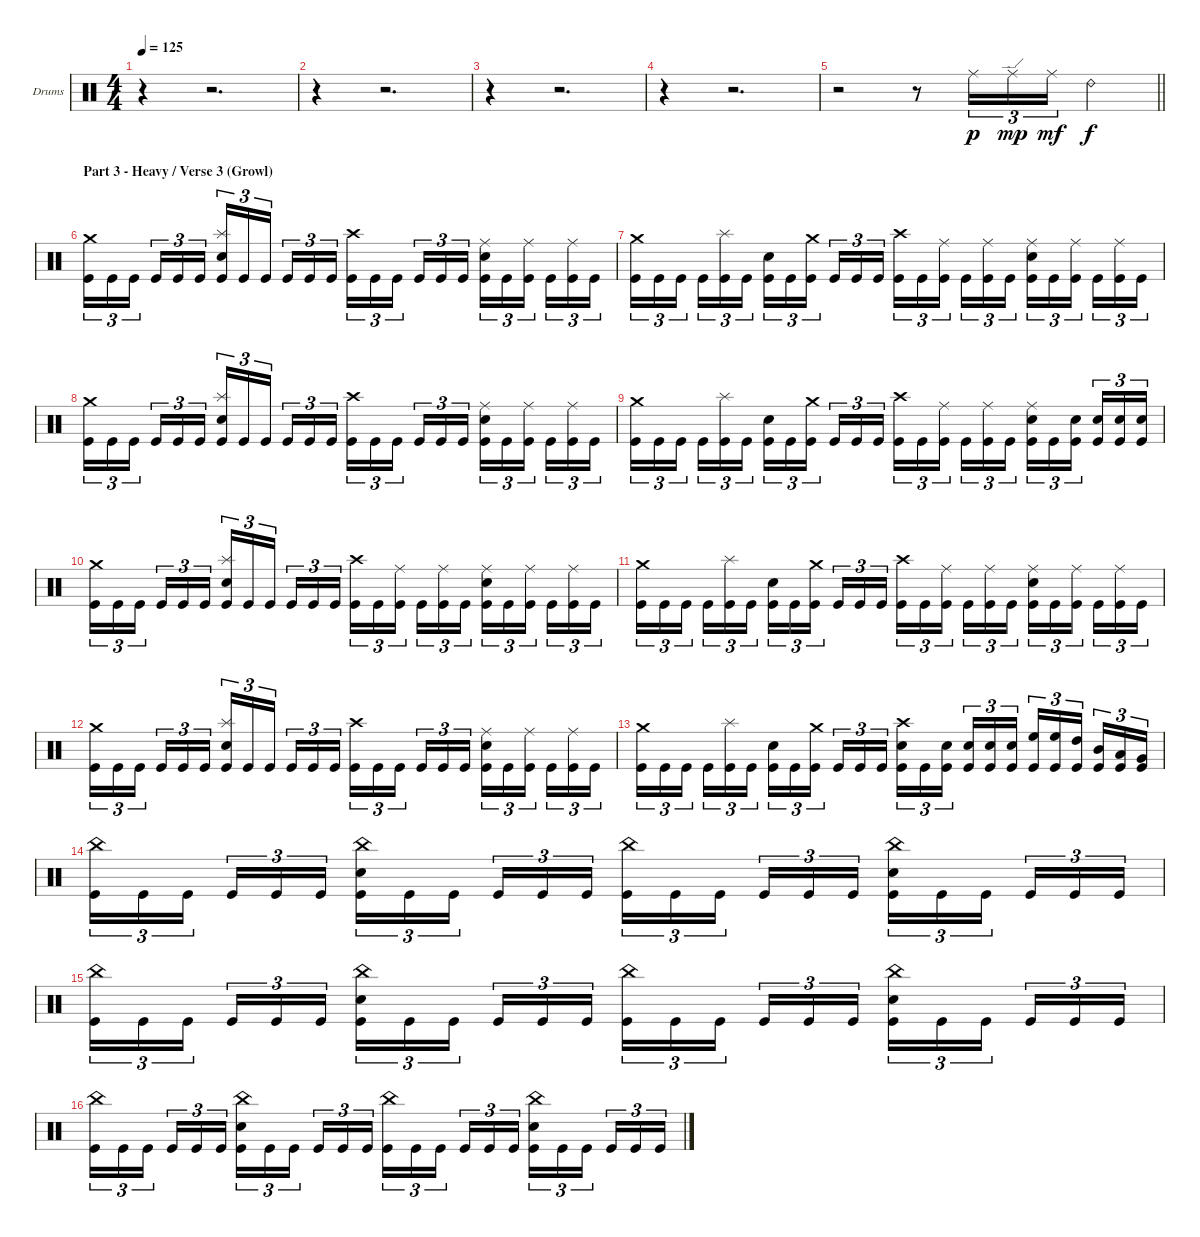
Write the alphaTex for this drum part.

\bracketExtendMode nobrackets
\firstSystemTrackNameOrientation horizontal
\otherSystemsTrackNameOrientation horizontal
\track ("Drumkit" "Drums") {instrument percussion}
\staff {score}
\articulation defaults
\ts (4 4)
\tempo 125
\clef neutral
\ks c
r.4{dy f} r.2{d} |
r.4 r.2{d} |
r.4 r.2{d} |
r.4 r.2{d} |
\barLineRight lightlight
r.2 r.8 "Ride (middle)".16{tu (3 2) dy p} "Ride (edge)".16{tu (3 2) dy mp} "Ride (middle)".16{tu (3 2) dy mf} "Ride (bell) 2".4{dy f} |
\section ("" "Part 3 - Heavy / Verse 3 (Growl)")
("Crash medium (hit)" "Kick (hit)").16{tu (3 2)} "Kick (hit)".16{tu (3 2)} "Kick (hit)".16{tu (3 2)} "Kick (hit)".16{tu (3 2)} "Kick (hit)".16{tu (3 2)} "Kick (hit)".16{tu (3 2)} ("Splash (hit)" "Snare (hit) 2" "Kick (hit)").16{tu (3 2)} "Kick (hit)".16{tu (3 2)} "Kick (hit)".16{tu (3 2)} "Kick (hit)".16{tu (3 2)} "Kick (hit)".16{tu (3 2)} "Kick (hit)".16{tu (3 2)} ("Crash high (hit)" "Kick (hit)").16{tu (3 2)} "Kick (hit)".16{tu (3 2)} "Kick (hit)".16{tu (3 2)} "Kick (hit)".16{tu (3 2)} "Kick (hit)".16{tu (3 2)} "Kick (hit)".16{tu (3 2)} ("Ride (middle)" "Snare (hit) 2" "Kick (hit)").16{tu (3 2)} "Kick (hit)".16{tu (3 2)} ("Ride (middle)" "Kick (hit)").16{tu (3 2)} "Kick (hit)".16{tu (3 2)} ("Ride (middle)" "Kick (hit)").16{tu (3 2)} "Kick (hit)".16{tu (3 2)} |
("Crash medium (hit)" "Kick (hit)").16{tu (3 2)} "Kick (hit)".16{tu (3 2)} "Kick (hit)".16{tu (3 2)} "Kick (hit)".16{tu (3 2)} ("Splash (hit)" "Kick (hit)").16{tu (3 2)} "Kick (hit)".16{tu (3 2)} ("Snare (hit) 2" "Kick (hit)").16{tu (3 2)} "Kick (hit)".16{tu (3 2)} ("Crash medium (hit)" "Kick (hit)").16{tu (3 2)} "Kick (hit)".16{tu (3 2)} "Kick (hit)".16{tu (3 2)} "Kick (hit)".16{tu (3 2)} ("Crash high (hit)" "Kick (hit)").16{tu (3 2)} "Kick (hit)".16{tu (3 2)} ("Ride (middle)" "Kick (hit)").16{tu (3 2)} "Kick (hit)".16{tu (3 2)} ("Ride (middle)" "Kick (hit)").16{tu (3 2)} "Kick (hit)".16{tu (3 2)} ("Ride (middle)" "Snare (hit) 2" "Kick (hit)").16{tu (3 2)} "Kick (hit)".16{tu (3 2)} ("Ride (middle)" "Kick (hit)").16{tu (3 2)} "Kick (hit)".16{tu (3 2)} ("Ride (middle)" "Kick (hit)").16{tu (3 2)} "Kick (hit)".16{tu (3 2)} |
("Crash medium (hit)" "Kick (hit)").16{tu (3 2)} "Kick (hit)".16{tu (3 2)} "Kick (hit)".16{tu (3 2)} "Kick (hit)".16{tu (3 2)} "Kick (hit)".16{tu (3 2)} "Kick (hit)".16{tu (3 2)} ("Splash (hit)" "Snare (hit) 2" "Kick (hit)").16{tu (3 2)} "Kick (hit)".16{tu (3 2)} "Kick (hit)".16{tu (3 2)} "Kick (hit)".16{tu (3 2)} "Kick (hit)".16{tu (3 2)} "Kick (hit)".16{tu (3 2)} ("Crash high (hit)" "Kick (hit)").16{tu (3 2)} "Kick (hit)".16{tu (3 2)} "Kick (hit)".16{tu (3 2)} "Kick (hit)".16{tu (3 2)} "Kick (hit)".16{tu (3 2)} "Kick (hit)".16{tu (3 2)} ("Ride (middle)" "Snare (hit) 2" "Kick (hit)").16{tu (3 2)} "Kick (hit)".16{tu (3 2)} ("Ride (middle)" "Kick (hit)").16{tu (3 2)} "Kick (hit)".16{tu (3 2)} ("Ride (middle)" "Kick (hit)").16{tu (3 2)} "Kick (hit)".16{tu (3 2)} |
("Crash medium (hit)" "Kick (hit)").16{tu (3 2)} "Kick (hit)".16{tu (3 2)} "Kick (hit)".16{tu (3 2)} "Kick (hit)".16{tu (3 2)} ("Splash (hit)" "Kick (hit)").16{tu (3 2)} "Kick (hit)".16{tu (3 2)} ("Snare (hit) 2" "Kick (hit)").16{tu (3 2)} "Kick (hit)".16{tu (3 2)} ("Crash medium (hit)" "Kick (hit)").16{tu (3 2)} "Kick (hit)".16{tu (3 2)} "Kick (hit)".16{tu (3 2)} "Kick (hit)".16{tu (3 2)} ("Crash high (hit)" "Kick (hit)").16{tu (3 2)} "Kick (hit)".16{tu (3 2)} ("Ride (middle)" "Kick (hit)").16{tu (3 2)} "Kick (hit)".16{tu (3 2)} ("Ride (middle)" "Kick (hit)").16{tu (3 2)} "Kick (hit)".16{tu (3 2)} ("Ride (middle)" "Snare (hit) 2" "Kick (hit)").16{tu (3 2)} "Kick (hit)".16{tu (3 2)} ("Snare (hit) 2" "Kick (hit)").16{tu (3 2)} ("Snare (hit) 2" "Kick (hit)").16{tu (3 2)} ("Snare (hit) 2" "Kick (hit)").16{tu (3 2)} ("Snare (hit) 2" "Kick (hit)").16{tu (3 2)} |
("Crash medium (hit)" "Kick (hit)").16{tu (3 2)} "Kick (hit)".16{tu (3 2)} "Kick (hit)".16{tu (3 2)} "Kick (hit)".16{tu (3 2)} "Kick (hit)".16{tu (3 2)} "Kick (hit)".16{tu (3 2)} ("Splash (hit)" "Snare (hit) 2" "Kick (hit)").16{tu (3 2)} "Kick (hit)".16{tu (3 2)} "Kick (hit)".16{tu (3 2)} "Kick (hit)".16{tu (3 2)} "Kick (hit)".16{tu (3 2)} "Kick (hit)".16{tu (3 2)} ("Crash high (hit)" "Kick (hit)").16{tu (3 2)} "Kick (hit)".16{tu (3 2)} ("Ride (middle)" "Kick (hit)").16{tu (3 2)} "Kick (hit)".16{tu (3 2)} ("Ride (middle)" "Kick (hit)").16{tu (3 2)} "Kick (hit)".16{tu (3 2)} ("Ride (middle)" "Snare (hit) 2" "Kick (hit)").16{tu (3 2)} "Kick (hit)".16{tu (3 2)} ("Ride (middle)" "Kick (hit)").16{tu (3 2)} "Kick (hit)".16{tu (3 2)} ("Ride (middle)" "Kick (hit)").16{tu (3 2)} "Kick (hit)".16{tu (3 2)} |
("Crash medium (hit)" "Kick (hit)").16{tu (3 2)} "Kick (hit)".16{tu (3 2)} "Kick (hit)".16{tu (3 2)} "Kick (hit)".16{tu (3 2)} ("Splash (hit)" "Kick (hit)").16{tu (3 2)} "Kick (hit)".16{tu (3 2)} ("Snare (hit) 2" "Kick (hit)").16{tu (3 2)} "Kick (hit)".16{tu (3 2)} ("Crash medium (hit)" "Kick (hit)").16{tu (3 2)} "Kick (hit)".16{tu (3 2)} "Kick (hit)".16{tu (3 2)} "Kick (hit)".16{tu (3 2)} ("Crash high (hit)" "Kick (hit)").16{tu (3 2)} "Kick (hit)".16{tu (3 2)} ("Ride (middle)" "Kick (hit)").16{tu (3 2)} "Kick (hit)".16{tu (3 2)} ("Ride (middle)" "Kick (hit)").16{tu (3 2)} "Kick (hit)".16{tu (3 2)} ("Ride (middle)" "Snare (hit) 2" "Kick (hit)").16{tu (3 2)} "Kick (hit)".16{tu (3 2)} ("Ride (middle)" "Kick (hit)").16{tu (3 2)} "Kick (hit)".16{tu (3 2)} ("Ride (middle)" "Kick (hit)").16{tu (3 2)} "Kick (hit)".16{tu (3 2)} |
("Crash medium (hit)" "Kick (hit)").16{tu (3 2)} "Kick (hit)".16{tu (3 2)} "Kick (hit)".16{tu (3 2)} "Kick (hit)".16{tu (3 2)} "Kick (hit)".16{tu (3 2)} "Kick (hit)".16{tu (3 2)} ("Splash (hit)" "Snare (hit) 2" "Kick (hit)").16{tu (3 2)} "Kick (hit)".16{tu (3 2)} "Kick (hit)".16{tu (3 2)} "Kick (hit)".16{tu (3 2)} "Kick (hit)".16{tu (3 2)} "Kick (hit)".16{tu (3 2)} ("Crash high (hit)" "Kick (hit)").16{tu (3 2)} "Kick (hit)".16{tu (3 2)} "Kick (hit)".16{tu (3 2)} "Kick (hit)".16{tu (3 2)} "Kick (hit)".16{tu (3 2)} "Kick (hit)".16{tu (3 2)} ("Ride (middle)" "Snare (hit) 2" "Kick (hit)").16{tu (3 2)} "Kick (hit)".16{tu (3 2)} ("Ride (middle)" "Kick (hit)").16{tu (3 2)} "Kick (hit)".16{tu (3 2)} ("Ride (middle)" "Kick (hit)").16{tu (3 2)} "Kick (hit)".16{tu (3 2)} |
("Crash medium (hit)" "Kick (hit)").16{tu (3 2)} "Kick (hit)".16{tu (3 2)} "Kick (hit)".16{tu (3 2)} "Kick (hit)".16{tu (3 2)} ("Splash (hit)" "Kick (hit)").16{tu (3 2)} "Kick (hit)".16{tu (3 2)} ("Snare (hit) 2" "Kick (hit)").16{tu (3 2)} "Kick (hit)".16{tu (3 2)} ("Crash medium (hit)" "Kick (hit)").16{tu (3 2)} "Kick (hit)".16{tu (3 2)} "Kick (hit)".16{tu (3 2)} "Kick (hit)".16{tu (3 2)} ("Crash high (hit)" "Snare (hit) 2" "Kick (hit)").16{tu (3 2)} "Kick (hit)".16{tu (3 2)} ("Snare (hit) 2" "Kick (hit)").16{tu (3 2)} ("Snare (hit) 2" "Kick (hit)").16{tu (3 2)} ("Snare (hit) 2" "Kick (hit)").16{tu (3 2)} ("Snare (hit) 2" "Kick (hit)").16{tu (3 2)} ("High Floor Tom (hit)" "Kick (hit)").16{tu (3 2)} ("High Floor Tom (hit)" "Kick (hit)").16{tu (3 2)} ("High Tom (hit)" "Kick (hit)").16{tu (3 2)} ("Mid Tom (hit)" "Kick (hit)").16{tu (3 2)} ("Low Tom (hit)" "Kick (hit)").16{tu (3 2)} ("Very Low Tom (hit)" "Kick (hit)").16{tu (3 2)} |
("China (hit)" "Kick (hit)").16{tu (3 2)} "Kick (hit)".16{tu (3 2)} "Kick (hit)".16{tu (3 2)} "Kick (hit)".16{tu (3 2)} "Kick (hit)".16{tu (3 2)} "Kick (hit)".16{tu (3 2)} ("China (hit)" "Snare (hit) 2" "Kick (hit)").16{tu (3 2)} "Kick (hit)".16{tu (3 2)} "Kick (hit)".16{tu (3 2)} "Kick (hit)".16{tu (3 2)} "Kick (hit)".16{tu (3 2)} "Kick (hit)".16{tu (3 2)} ("China (hit)" "Kick (hit)").16{tu (3 2)} "Kick (hit)".16{tu (3 2)} "Kick (hit)".16{tu (3 2)} "Kick (hit)".16{tu (3 2)} "Kick (hit)".16{tu (3 2)} "Kick (hit)".16{tu (3 2)} ("China (hit)" "Snare (hit) 2" "Kick (hit)").16{tu (3 2)} "Kick (hit)".16{tu (3 2)} "Kick (hit)".16{tu (3 2)} "Kick (hit)".16{tu (3 2)} "Kick (hit)".16{tu (3 2)} "Kick (hit)".16{tu (3 2)} |
("China (hit)" "Kick (hit)").16{tu (3 2)} "Kick (hit)".16{tu (3 2)} "Kick (hit)".16{tu (3 2)} "Kick (hit)".16{tu (3 2)} "Kick (hit)".16{tu (3 2)} "Kick (hit)".16{tu (3 2)} ("China (hit)" "Snare (hit) 2" "Kick (hit)").16{tu (3 2)} "Kick (hit)".16{tu (3 2)} "Kick (hit)".16{tu (3 2)} "Kick (hit)".16{tu (3 2)} "Kick (hit)".16{tu (3 2)} "Kick (hit)".16{tu (3 2)} ("China (hit)" "Kick (hit)").16{tu (3 2)} "Kick (hit)".16{tu (3 2)} "Kick (hit)".16{tu (3 2)} "Kick (hit)".16{tu (3 2)} "Kick (hit)".16{tu (3 2)} "Kick (hit)".16{tu (3 2)} ("China (hit)" "Snare (hit) 2" "Kick (hit)").16{tu (3 2)} "Kick (hit)".16{tu (3 2)} "Kick (hit)".16{tu (3 2)} "Kick (hit)".16{tu (3 2)} "Kick (hit)".16{tu (3 2)} "Kick (hit)".16{tu (3 2)} |
("China (hit)" "Kick (hit)").16{tu (3 2)} "Kick (hit)".16{tu (3 2)} "Kick (hit)".16{tu (3 2)} "Kick (hit)".16{tu (3 2)} "Kick (hit)".16{tu (3 2)} "Kick (hit)".16{tu (3 2)} ("China (hit)" "Snare (hit) 2" "Kick (hit)").16{tu (3 2)} "Kick (hit)".16{tu (3 2)} "Kick (hit)".16{tu (3 2)} "Kick (hit)".16{tu (3 2)} "Kick (hit)".16{tu (3 2)} "Kick (hit)".16{tu (3 2)} ("China (hit)" "Kick (hit)").16{tu (3 2)} "Kick (hit)".16{tu (3 2)} "Kick (hit)".16{tu (3 2)} "Kick (hit)".16{tu (3 2)} "Kick (hit)".16{tu (3 2)} "Kick (hit)".16{tu (3 2)} ("China (hit)" "Snare (hit) 2" "Kick (hit)").16{tu (3 2)} "Kick (hit)".16{tu (3 2)} "Kick (hit)".16{tu (3 2)} "Kick (hit)".16{tu (3 2)} "Kick (hit)".16{tu (3 2)} "Kick (hit)".16{tu (3 2)}
